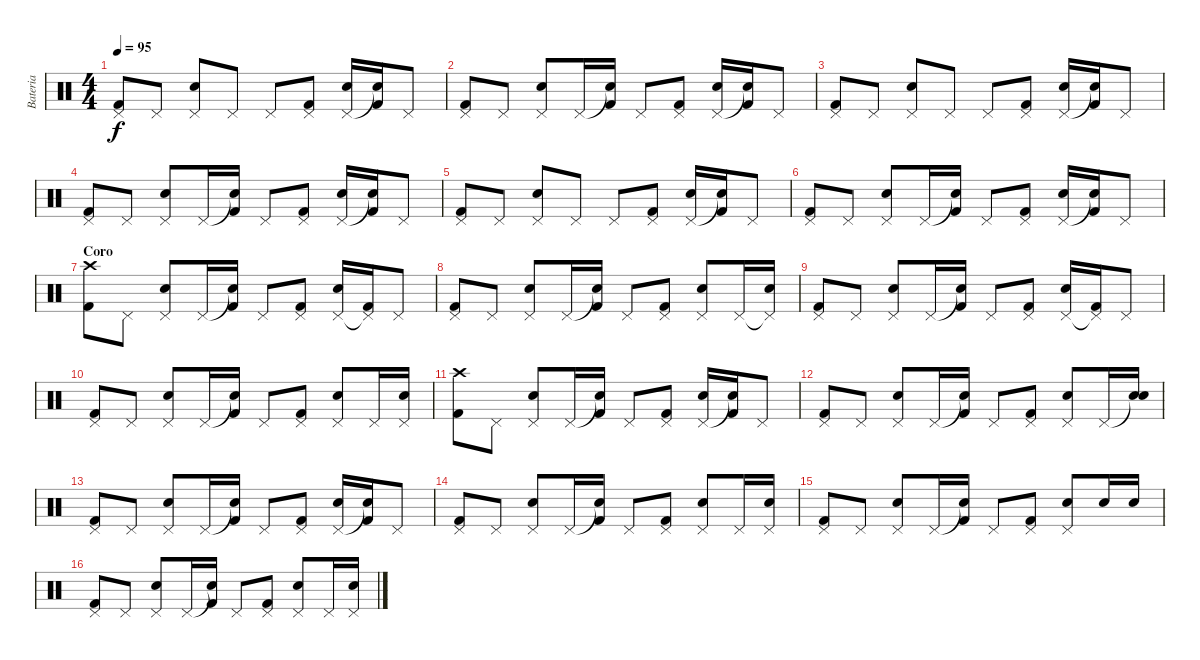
\track ("Bateria" "Bateria") {instrument percussion}
\staff {score}
\articulation defaults
\ts (4 4)
\tempo 95
\clef neutral
\ks c
("Pedal Hi-Hat (hit)" "Kick (hit) 2").8{dy f} "Pedal Hi-Hat (hit)".8 ("Pedal Hi-Hat (hit)" "Electric Snare (hit)").8 "Pedal Hi-Hat (hit)".8 "Pedal Hi-Hat (hit)".8 ("Pedal Hi-Hat (hit)" "Kick (hit) 2").8 ("Pedal Hi-Hat (hit)" "Electric Snare (hit)").16 ("Snare (hit)"{t} "Kick (hit) 2").16 "Pedal Hi-Hat (hit)".8 |
("Pedal Hi-Hat (hit)" "Kick (hit) 2").8 "Pedal Hi-Hat (hit)".8 ("Pedal Hi-Hat (hit)" "Electric Snare (hit)").8 "Pedal Hi-Hat (hit)".16 ("Snare (hit)"{t} "Kick (hit) 2").16 "Pedal Hi-Hat (hit)".8 ("Pedal Hi-Hat (hit)" "Kick (hit) 2").8 ("Pedal Hi-Hat (hit)" "Electric Snare (hit)").16 ("Snare (hit)"{t} "Kick (hit) 2").16 "Pedal Hi-Hat (hit)".8 |
("Pedal Hi-Hat (hit)" "Kick (hit) 2").8 "Pedal Hi-Hat (hit)".8 ("Pedal Hi-Hat (hit)" "Electric Snare (hit)").8 "Pedal Hi-Hat (hit)".8 "Pedal Hi-Hat (hit)".8 ("Pedal Hi-Hat (hit)" "Kick (hit) 2").8 ("Pedal Hi-Hat (hit)" "Electric Snare (hit)").16 ("Snare (hit)"{t} "Kick (hit) 2").16 "Pedal Hi-Hat (hit)".8 |
("Pedal Hi-Hat (hit)" "Kick (hit) 2").8 "Pedal Hi-Hat (hit)".8 ("Pedal Hi-Hat (hit)" "Electric Snare (hit)").8 "Pedal Hi-Hat (hit)".16 ("Snare (hit)"{t} "Kick (hit) 2").16 "Pedal Hi-Hat (hit)".8 ("Pedal Hi-Hat (hit)" "Kick (hit) 2").8 ("Pedal Hi-Hat (hit)" "Electric Snare (hit)").16 ("Snare (hit)"{t} "Kick (hit) 2").16 "Pedal Hi-Hat (hit)".8 |
("Pedal Hi-Hat (hit)" "Kick (hit) 2").8 "Pedal Hi-Hat (hit)".8 ("Pedal Hi-Hat (hit)" "Electric Snare (hit)").8 "Pedal Hi-Hat (hit)".8 "Pedal Hi-Hat (hit)".8 ("Pedal Hi-Hat (hit)" "Kick (hit) 2").8 ("Pedal Hi-Hat (hit)" "Electric Snare (hit)").16 ("Snare (hit)"{t} "Kick (hit) 2").16 "Pedal Hi-Hat (hit)".8 |
("Pedal Hi-Hat (hit)" "Kick (hit) 2").8 "Pedal Hi-Hat (hit)".8 ("Pedal Hi-Hat (hit)" "Electric Snare (hit)").8 "Pedal Hi-Hat (hit)".16 ("Snare (hit)"{t} "Kick (hit) 2").16 "Pedal Hi-Hat (hit)".8 ("Pedal Hi-Hat (hit)" "Kick (hit) 2").8 ("Pedal Hi-Hat (hit)" "Electric Snare (hit)").16 ("Snare (hit)"{t} "Kick (hit) 2").16 "Pedal Hi-Hat (hit)".8 |
\section ("" "Coro")
("Crash high (hit)" "Kick (hit) 2").8 "Pedal Hi-Hat (hit)".8 ("Pedal Hi-Hat (hit)" "Electric Snare (hit)").8 "Pedal Hi-Hat (hit)".16 ("Snare (hit)"{t} "Kick (hit) 2").16 "Pedal Hi-Hat (hit)".8 ("Pedal Hi-Hat (hit)" "Kick (hit) 2").8 ("Pedal Hi-Hat (hit)" "Electric Snare (hit)").16 ("Pedal Hi-Hat (hit)"{t} "Kick (hit) 2").16 "Pedal Hi-Hat (hit)".8 |
("Pedal Hi-Hat (hit)" "Kick (hit) 2").8 "Pedal Hi-Hat (hit)".8 ("Pedal Hi-Hat (hit)" "Electric Snare (hit)").8 "Pedal Hi-Hat (hit)".16 ("Snare (hit)"{t} "Kick (hit) 2").16 "Pedal Hi-Hat (hit)".8 ("Pedal Hi-Hat (hit)" "Kick (hit) 2").8 ("Pedal Hi-Hat (hit)" "Electric Snare (hit)").8 "Pedal Hi-Hat (hit)".16 ("Pedal Hi-Hat (hit)"{t} "Electric Snare (hit)").16 |
("Pedal Hi-Hat (hit)" "Kick (hit) 2").8 "Pedal Hi-Hat (hit)".8 ("Pedal Hi-Hat (hit)" "Electric Snare (hit)").8 "Pedal Hi-Hat (hit)".16 ("Snare (hit)"{t} "Kick (hit) 2").16 "Pedal Hi-Hat (hit)".8 ("Pedal Hi-Hat (hit)" "Kick (hit) 2").8 ("Pedal Hi-Hat (hit)" "Electric Snare (hit)").16 ("Pedal Hi-Hat (hit)"{t} "Kick (hit) 2").16 "Pedal Hi-Hat (hit)".8 |
("Pedal Hi-Hat (hit)" "Kick (hit) 2").8 "Pedal Hi-Hat (hit)".8 ("Pedal Hi-Hat (hit)" "Electric Snare (hit)").8 "Pedal Hi-Hat (hit)".16 ("Snare (hit)"{t} "Kick (hit) 2").16 "Pedal Hi-Hat (hit)".8 ("Pedal Hi-Hat (hit)" "Kick (hit) 2").8 ("Pedal Hi-Hat (hit)" "Electric Snare (hit)").8 "Pedal Hi-Hat (hit)".16 ("Pedal Hi-Hat (hit)" "Electric Snare (hit)").16 |
("Crash high (hit)" "Kick (hit) 2").8 "Pedal Hi-Hat (hit)".8 ("Pedal Hi-Hat (hit)" "Electric Snare (hit)").8 "Pedal Hi-Hat (hit)".16 ("Snare (hit)"{t} "Kick (hit) 2").16 "Pedal Hi-Hat (hit)".8 ("Pedal Hi-Hat (hit)" "Kick (hit) 2").8 ("Pedal Hi-Hat (hit)" "Electric Snare (hit)").16 ("Snare (hit)"{t} "Kick (hit) 2").16 "Pedal Hi-Hat (hit)".8 |
("Pedal Hi-Hat (hit)" "Kick (hit) 2").8 "Pedal Hi-Hat (hit)".8 ("Pedal Hi-Hat (hit)" "Electric Snare (hit)").8 "Pedal Hi-Hat (hit)".16 ("Snare (hit)"{t} "Kick (hit) 2").16 "Pedal Hi-Hat (hit)".8 ("Pedal Hi-Hat (hit)" "Kick (hit) 2").8 ("Pedal Hi-Hat (hit)" "Electric Snare (hit)").8 "Pedal Hi-Hat (hit)".16 ("Snare (hit)"{t} "Electric Snare (hit)").16 |
("Pedal Hi-Hat (hit)" "Kick (hit) 2").8 "Pedal Hi-Hat (hit)".8 ("Pedal Hi-Hat (hit)" "Electric Snare (hit)").8 "Pedal Hi-Hat (hit)".16 ("Snare (hit)"{t} "Kick (hit) 2").16 "Pedal Hi-Hat (hit)".8 ("Pedal Hi-Hat (hit)" "Kick (hit) 2").8 ("Pedal Hi-Hat (hit)" "Electric Snare (hit)").16 ("Snare (hit)"{t} "Kick (hit) 2").16 "Pedal Hi-Hat (hit)".8 |
("Pedal Hi-Hat (hit)" "Kick (hit) 2").8 "Pedal Hi-Hat (hit)".8 ("Pedal Hi-Hat (hit)" "Electric Snare (hit)").8 "Pedal Hi-Hat (hit)".16 ("Snare (hit)"{t} "Kick (hit) 2").16 "Pedal Hi-Hat (hit)".8 ("Pedal Hi-Hat (hit)" "Kick (hit) 2").8 ("Pedal Hi-Hat (hit)" "Electric Snare (hit)").8 "Pedal Hi-Hat (hit)".16 ("Pedal Hi-Hat (hit)" "Electric Snare (hit)").16 |
("Pedal Hi-Hat (hit)" "Kick (hit) 2").8 "Pedal Hi-Hat (hit)".8 ("Pedal Hi-Hat (hit)" "Electric Snare (hit)").8 "Pedal Hi-Hat (hit)".16 ("Snare (hit)"{t} "Kick (hit) 2").16 "Pedal Hi-Hat (hit)".8 ("Pedal Hi-Hat (hit)" "Kick (hit) 2").8 ("Pedal Hi-Hat (hit)" "Electric Snare (hit)").8 "Electric Snare (hit)".16 "Electric Snare (hit)".16 |
("Pedal Hi-Hat (hit)" "Kick (hit) 2").8 "Pedal Hi-Hat (hit)".8 ("Pedal Hi-Hat (hit)" "Electric Snare (hit)").8 "Pedal Hi-Hat (hit)".16 ("Snare (hit)"{t} "Kick (hit) 2").16 "Pedal Hi-Hat (hit)".8 ("Pedal Hi-Hat (hit)" "Kick (hit) 2").8 ("Pedal Hi-Hat (hit)" "Electric Snare (hit)").8 "Pedal Hi-Hat (hit)".16 ("Pedal Hi-Hat (hit)" "Electric Snare (hit)").16
